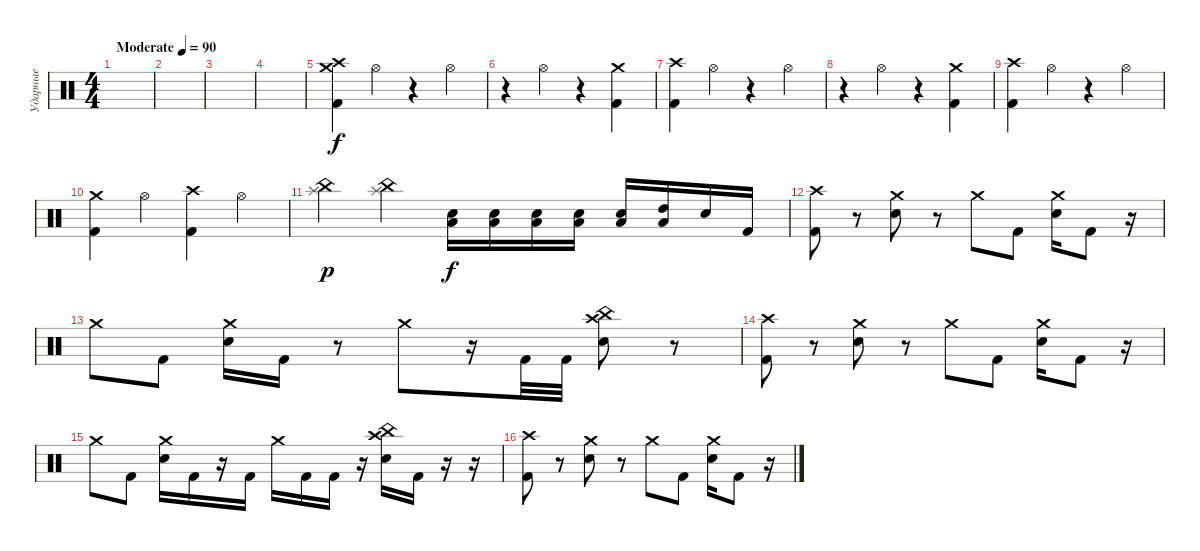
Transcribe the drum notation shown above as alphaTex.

\track ("Ударные" "Ударные") {instrument percussion}
\staff {score}
\articulation defaults
\ts (4 4)
\tempo (90 "Moderate")
\clef neutral
\ks c
|
|
|
|
("Crash high (hit)" "Crash medium (hit)" "Kick (hit) 2").4 "Hi-Hat (open)".4 r.4 "Hi-Hat (open)".4 |
r.4 "Hi-Hat (open)".4 r.4 ("Crash medium (hit)" "Kick (hit) 2").4 |
("Crash high (hit)" "Kick (hit) 2").4 "Hi-Hat (open)".4 r.4 "Hi-Hat (open)".4 |
r.4 "Hi-Hat (open)".4 r.4 ("Crash medium (hit)" "Kick (hit) 2").4 |
("Crash high (hit)" "Kick (hit) 2").4 "Hi-Hat (open)".4 r.4 "Hi-Hat (open)".4 |
("Crash medium (hit)" "Kick (hit) 2").4 "Hi-Hat (open)".4 ("Crash high (hit)" "Kick (hit) 2").4 "Hi-Hat (open)".4 |
("Splash (hit)" "China (hit)").4{dy p} ("Splash (hit)" "China (hit)").4 ("Low Floor Tom (hit)" "Electric Snare (hit)").16{dy f} ("Low Floor Tom (hit)" "Electric Snare (hit)").16 ("Low Floor Tom (hit)" "Electric Snare (hit)").16 ("Low Floor Tom (hit)" "Electric Snare (hit)").16 ("Low Floor Tom (hit)" "Electric Snare (hit)").16 ("Low Floor Tom (hit)" "High Tom (hit)").16 "Electric Snare (hit)".16 "Kick (hit) 2".16 |
("Crash high (hit)" "Kick (hit) 2").8 r.8 ("Crash medium (hit)" "Electric Snare (hit)").8 r.8 "Crash medium (hit)".8 "Kick (hit) 2".8 ("Crash medium (hit)" "Electric Snare (hit)").16 "Kick (hit) 2".8 r.16 |
"Crash medium (hit)".8 "Kick (hit) 2".8 ("Crash medium (hit)" "Electric Snare (hit)").16 "Kick (hit) 2".16 r.8 "Crash medium (hit)".8 r.16 "Kick (hit) 2".32 "Kick (hit) 2".32 ("China (hit)" "Crash high (hit)" "Electric Snare (hit)").8 r.8 |
("Crash high (hit)" "Kick (hit) 2").8 r.8 ("Crash medium (hit)" "Electric Snare (hit)").8 r.8 "Crash medium (hit)".8 "Kick (hit) 2".8 ("Crash medium (hit)" "Electric Snare (hit)").16 "Kick (hit) 2".8 r.16 |
"Crash medium (hit)".8 "Kick (hit) 2".8 ("Crash medium (hit)" "Electric Snare (hit)").16 "Kick (hit) 2".16 r.16 "Kick (hit) 2".16 "Crash medium (hit)".16 "Kick (hit) 2".16 "Kick (hit) 2".16 r.16 ("China (hit)" "Crash high (hit)" "Electric Snare (hit)").16 "Kick (hit) 2".16 r.16 r.16 |
("Crash high (hit)" "Kick (hit) 2").8 r.8 ("Crash medium (hit)" "Electric Snare (hit)").8 r.8 "Crash medium (hit)".8 "Kick (hit) 2".8 ("Crash medium (hit)" "Electric Snare (hit)").16 "Kick (hit) 2".8 r.16
